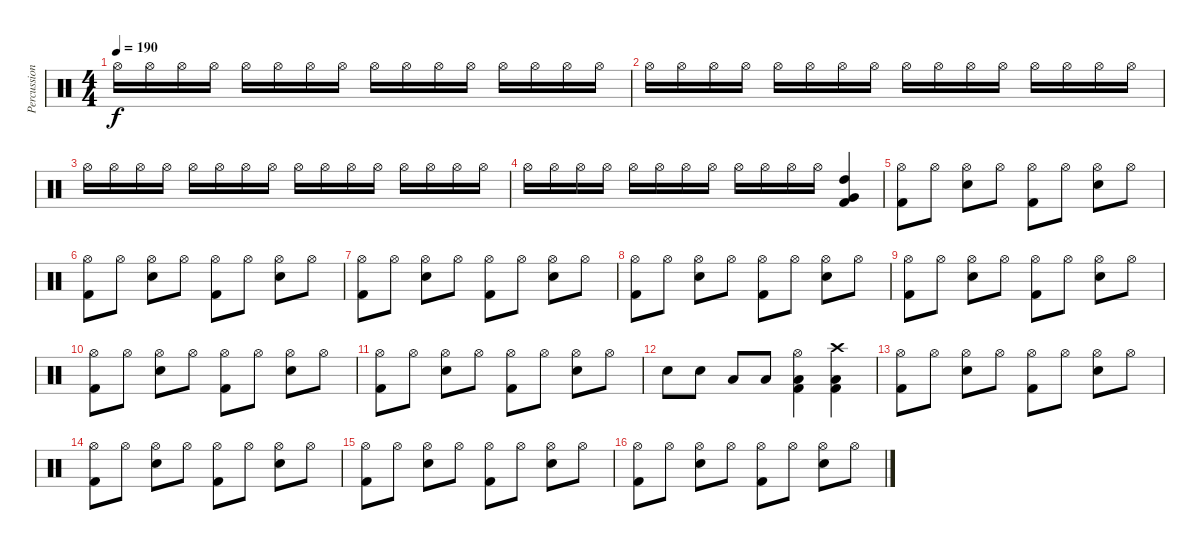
\track ("Percussions" "Percussion") {instrument percussion}
\staff {score}
\articulation defaults
\ts (4 4)
\tempo 190
\clef neutral
\ks c "Hi-Hat (open)".16{dy f volume 14} "Hi-Hat (open)".16 "Hi-Hat (open)".16 "Hi-Hat (open)".16 "Hi-Hat (open)".16 "Hi-Hat (open)".16 "Hi-Hat (open)".16 "Hi-Hat (open)".16 "Hi-Hat (open)".16 "Hi-Hat (open)".16 "Hi-Hat (open)".16 "Hi-Hat (open)".16 "Hi-Hat (open)".16 "Hi-Hat (open)".16 "Hi-Hat (open)".16 "Hi-Hat (open)".16
|
"Hi-Hat (open)".16 "Hi-Hat (open)".16 "Hi-Hat (open)".16 "Hi-Hat (open)".16 "Hi-Hat (open)".16 "Hi-Hat (open)".16 "Hi-Hat (open)".16 "Hi-Hat (open)".16 "Hi-Hat (open)".16 "Hi-Hat (open)".16 "Hi-Hat (open)".16 "Hi-Hat (open)".16 "Hi-Hat (open)".16 "Hi-Hat (open)".16 "Hi-Hat (open)".16 "Hi-Hat (open)".16 |
"Hi-Hat (open)".16 "Hi-Hat (open)".16 "Hi-Hat (open)".16 "Hi-Hat (open)".16 "Hi-Hat (open)".16 "Hi-Hat (open)".16 "Hi-Hat (open)".16 "Hi-Hat (open)".16 "Hi-Hat (open)".16 "Hi-Hat (open)".16 "Hi-Hat (open)".16 "Hi-Hat (open)".16 "Hi-Hat (open)".16 "Hi-Hat (open)".16 "Hi-Hat (open)".16 "Hi-Hat (open)".16 |
"Hi-Hat (open)".16 "Hi-Hat (open)".16 "Hi-Hat (open)".16 "Hi-Hat (open)".16 "Hi-Hat (open)".16 "Hi-Hat (open)".16 "Hi-Hat (open)".16 "Hi-Hat (open)".16 "Hi-Hat (open)".16 "Hi-Hat (open)".16 "Hi-Hat (open)".16 "Hi-Hat (open)".16 ("High Tom (hit)" "Very Low Tom (hit)" "Kick (hit) 2").4 |
("Hi-Hat (open)" "Kick (hit) 2").8 "Hi-Hat (open)".8 ("Hi-Hat (open)" "Snare (hit) 2").8 "Hi-Hat (open)".8 ("Hi-Hat (open)" "Kick (hit) 2").8 "Hi-Hat (open)".8 ("Hi-Hat (open)" "Snare (hit) 2").8 "Hi-Hat (open)".8 |
("Hi-Hat (open)" "Kick (hit) 2").8 "Hi-Hat (open)".8 ("Hi-Hat (open)" "Snare (hit) 2").8 "Hi-Hat (open)".8 ("Hi-Hat (open)" "Kick (hit) 2").8 "Hi-Hat (open)".8 ("Hi-Hat (open)" "Snare (hit) 2").8 "Hi-Hat (open)".8 |
("Hi-Hat (open)" "Kick (hit) 2").8 "Hi-Hat (open)".8 ("Hi-Hat (open)" "Snare (hit) 2").8 "Hi-Hat (open)".8 ("Hi-Hat (open)" "Kick (hit) 2").8 "Hi-Hat (open)".8 ("Hi-Hat (open)" "Snare (hit) 2").8 "Hi-Hat (open)".8 |
("Hi-Hat (open)" "Kick (hit) 2").8 "Hi-Hat (open)".8 ("Hi-Hat (open)" "Snare (hit) 2").8 "Hi-Hat (open)".8 ("Hi-Hat (open)" "Kick (hit) 2").8 "Hi-Hat (open)".8 ("Hi-Hat (open)" "Snare (hit) 2").8 "Hi-Hat (open)".8 |
("Hi-Hat (open)" "Kick (hit) 2").8 "Hi-Hat (open)".8 ("Hi-Hat (open)" "Snare (hit) 2").8 "Hi-Hat (open)".8 ("Hi-Hat (open)" "Kick (hit) 2").8 "Hi-Hat (open)".8 ("Hi-Hat (open)" "Snare (hit) 2").8 "Hi-Hat (open)".8 |
("Hi-Hat (open)" "Kick (hit) 2").8 "Hi-Hat (open)".8 ("Hi-Hat (open)" "Snare (hit) 2").8 "Hi-Hat (open)".8 ("Hi-Hat (open)" "Kick (hit) 2").8 "Hi-Hat (open)".8 ("Hi-Hat (open)" "Snare (hit) 2").8 "Hi-Hat (open)".8 |
("Hi-Hat (open)" "Kick (hit) 2").8 "Hi-Hat (open)".8 ("Hi-Hat (open)" "Snare (hit) 2").8 "Hi-Hat (open)".8 ("Hi-Hat (open)" "Kick (hit) 2").8 "Hi-Hat (open)".8 ("Hi-Hat (open)" "Snare (hit) 2").8 "Hi-Hat (open)".8 |
"Snare (hit) 2".8 "Snare (hit) 2".8 "Low Tom (hit)".8 "Low Tom (hit)".8 ("Hi-Hat (open)" "Low Floor Tom (hit)" "Kick (hit) 2").4 ("Crash high (hit)" "Low Floor Tom (hit)" "Kick (hit) 2").4 |
("Hi-Hat (open)" "Kick (hit) 2").8 "Hi-Hat (open)".8 ("Hi-Hat (open)" "Snare (hit) 2").8 "Hi-Hat (open)".8 ("Hi-Hat (open)" "Kick (hit) 2").8 "Hi-Hat (open)".8 ("Hi-Hat (open)" "Snare (hit) 2").8 "Hi-Hat (open)".8 |
("Hi-Hat (open)" "Kick (hit) 2").8 "Hi-Hat (open)".8 ("Hi-Hat (open)" "Snare (hit) 2").8 "Hi-Hat (open)".8 ("Hi-Hat (open)" "Kick (hit) 2").8 "Hi-Hat (open)".8 ("Hi-Hat (open)" "Snare (hit) 2").8 "Hi-Hat (open)".8 |
("Hi-Hat (open)" "Kick (hit) 2").8 "Hi-Hat (open)".8 ("Hi-Hat (open)" "Snare (hit) 2").8 "Hi-Hat (open)".8 ("Hi-Hat (open)" "Kick (hit) 2").8 "Hi-Hat (open)".8 ("Hi-Hat (open)" "Snare (hit) 2").8 "Hi-Hat (open)".8 |
("Hi-Hat (open)" "Kick (hit) 2").8 "Hi-Hat (open)".8 ("Hi-Hat (open)" "Snare (hit) 2").8 "Hi-Hat (open)".8 ("Hi-Hat (open)" "Kick (hit) 2").8 "Hi-Hat (open)".8 ("Hi-Hat (open)" "Snare (hit) 2").8 "Hi-Hat (open)".8
